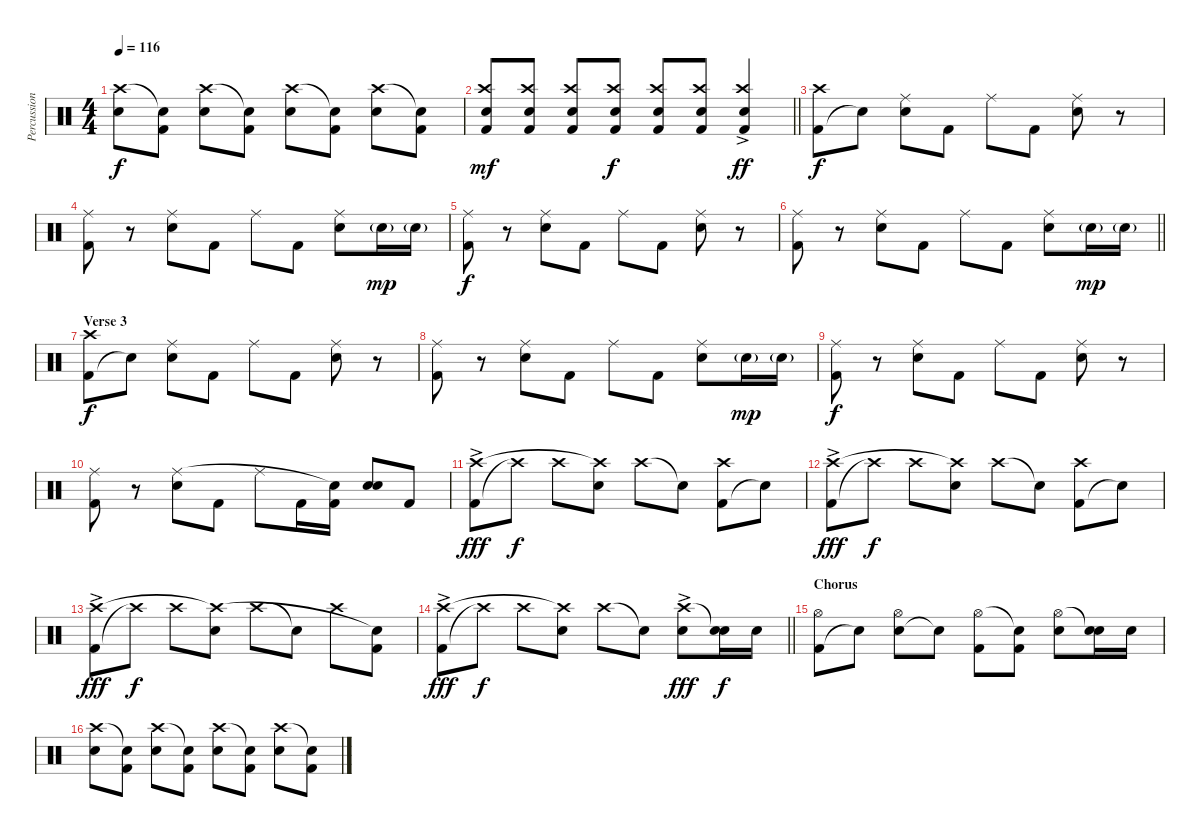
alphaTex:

\track ("Percussion" "Percussion") {instrument percussion}
\staff {score}
\articulation defaults
\ts (4 4)
\tempo 116
\clef neutral
\ks c
("Electric Snare (hit)" "Crash high (hit)").8{dy f} ("Kick (hit) 2" "Snare (hit)"{t}).8 ("Electric Snare (hit)" "Crash high (hit)").8 ("Kick (hit) 2" "Snare (hit)"{t}).8 ("Electric Snare (hit)" "Crash high (hit)").8 ("Kick (hit) 2" "Snare (hit)"{t}).8 ("Electric Snare (hit)" "Crash high (hit)").8 ("Kick (hit) 2" "Snare (hit)"{t}).8 |
\barLineRight lightlight
("Kick (hit) 2" "Electric Snare (hit)" "Crash high (hit)").8{dy mf} ("Kick (hit) 2" "Electric Snare (hit)" "Crash high (hit)").8 ("Kick (hit) 2" "Electric Snare (hit)" "Crash high (hit)").8 ("Kick (hit) 2" "Electric Snare (hit)" "Crash high (hit)").8{dy f} ("Kick (hit) 2" "Electric Snare (hit)" "Crash high (hit)").8 ("Kick (hit) 2" "Electric Snare (hit)" "Crash high (hit)").8 ("Kick (hit) 2"{ac} "Electric Snare (hit)"{ac} "Crash high (hit)").4{dy ff} |
("Kick (hit) 2" "Crash high (hit)").8{dy f} "Snare (hit)"{t}.8 ("Electric Snare (hit)" "Ride (middle)").8 "Kick (hit) 2".8 "Ride (middle)".8 "Kick (hit) 2".8 ("Electric Snare (hit)" "Ride (middle)").8 r.8 |
("Kick (hit) 2" "Ride (middle)").8 r.8 ("Electric Snare (hit)" "Ride (middle)").8 "Kick (hit) 2".8 "Ride (middle)".8 "Kick (hit) 2".8 ("Electric Snare (hit)" "Ride (middle)").8 "Electric Snare (hit)"{g}.16{dy mp} "Electric Snare (hit)"{g}.16 |
("Kick (hit) 2" "Ride (middle)").8{dy f} r.8 ("Electric Snare (hit)" "Ride (middle)").8 "Kick (hit) 2".8 "Ride (middle)".8 "Kick (hit) 2".8 ("Electric Snare (hit)" "Ride (middle)").8 r.8 |
\barLineRight lightlight
("Kick (hit) 2" "Ride (middle)").8 r.8 ("Electric Snare (hit)" "Ride (middle)").8 "Kick (hit) 2".8 "Ride (middle)".8 "Kick (hit) 2".8 ("Electric Snare (hit)" "Ride (middle)").8 "Electric Snare (hit)"{g}.16{dy mp} "Electric Snare (hit)"{g}.16 |
\section ("" "Verse 3")
("Kick (hit) 2" "Crash high (hit)").8{dy f} "Snare (hit)"{t}.8 ("Electric Snare (hit)" "Ride (middle)").8 "Kick (hit) 2".8 "Ride (middle)".8 "Kick (hit) 2".8 ("Electric Snare (hit)" "Ride (middle)").8 r.8 |
("Kick (hit) 2" "Ride (middle)").8 r.8 ("Electric Snare (hit)" "Ride (middle)").8 "Kick (hit) 2".8 "Ride (middle)".8 "Kick (hit) 2".8 ("Electric Snare (hit)" "Ride (middle)").8 "Electric Snare (hit)"{g}.16{dy mp} "Electric Snare (hit)"{g}.16 |
("Kick (hit) 2" "Ride (middle)").8{dy f} r.8 ("Electric Snare (hit)" "Ride (middle)").8 "Kick (hit) 2".8 "Ride (middle)".8 "Kick (hit) 2".8 ("Electric Snare (hit)" "Ride (middle)").8 r.8 |
("Kick (hit) 2" "Ride (middle)").8 r.8 ("Electric Snare (hit)" "Ride (middle)").8 "Kick (hit) 2".8 "Ride (middle)".8 "Kick (hit) 2".16 ("Kick (hit) 2" "Snare (hit)"{t}).16 ("Electric Snare (hit)" "Electric Snare (hit)").8 "Kick (hit) 2".8 |
("Kick (hit) 2" "Crash high (hit)"{ac}).8{dy fff} "Crash high (hit)"{t}.8{dy f} "Crash high (hit)".8 ("Electric Snare (hit)" "Crash high (hit)"{t}).8 "Crash high (hit)".8 "Snare (hit)"{t}.8 ("Kick (hit) 2" "Crash high (hit)").8 "Snare (hit)"{t}.8 |
("Kick (hit) 2" "Crash high (hit)"{ac}).8{dy fff} "Crash high (hit)"{t}.8{dy f} "Crash high (hit)".8 ("Electric Snare (hit)" "Crash high (hit)"{t}).8 "Crash high (hit)".8 "Snare (hit)"{t}.8 ("Kick (hit) 2" "Crash high (hit)").8 "Snare (hit)"{t}.8 |
("Kick (hit) 2" "Crash high (hit)"{ac}).8{dy fff} "Crash high (hit)"{t}.8{dy f} "Crash high (hit)".8 ("Electric Snare (hit)" "Crash high (hit)"{t}).8 "Crash high (hit)".8 "Snare (hit)"{t}.8 "Crash high (hit)".8 ("Kick (hit) 2" "Snare (hit)"{t}).8 |
\barLineRight lightlight
("Kick (hit) 2" "Crash high (hit)"{ac}).8{dy fff} "Crash high (hit)"{t}.8{dy f} "Crash high (hit)".8 ("Electric Snare (hit)" "Crash high (hit)"{t}).8 "Crash high (hit)".8 "Snare (hit)"{t}.8 ("Electric Snare (hit)" "Crash high (hit)"{ac}).8{dy fff} ("Electric Snare (hit)" "Snare (hit)"{t}).16{dy f} "Electric Snare (hit)".16 |
\section ("" "Chorus")
("Kick (hit) 2" "Hi-Hat (open)").8 "Snare (hit)"{t}.8 ("Electric Snare (hit)" "Hi-Hat (open)").8 "Snare (hit)"{t}.8 ("Kick (hit) 2" "Hi-Hat (open)").8 ("Kick (hit) 2" "Snare (hit)"{t}).8 ("Electric Snare (hit)" "Hi-Hat (open)").8 ("Electric Snare (hit)" "Snare (hit)"{t}).16 "Electric Snare (hit)".16 |
("Electric Snare (hit)" "Crash high (hit)").8 ("Kick (hit) 2" "Snare (hit)"{t}).8 ("Electric Snare (hit)" "Crash high (hit)").8 ("Kick (hit) 2" "Snare (hit)"{t}).8 ("Electric Snare (hit)" "Crash high (hit)").8 ("Kick (hit) 2" "Snare (hit)"{t}).8 ("Electric Snare (hit)" "Crash high (hit)").8 ("Kick (hit) 2" "Snare (hit)"{t}).8
